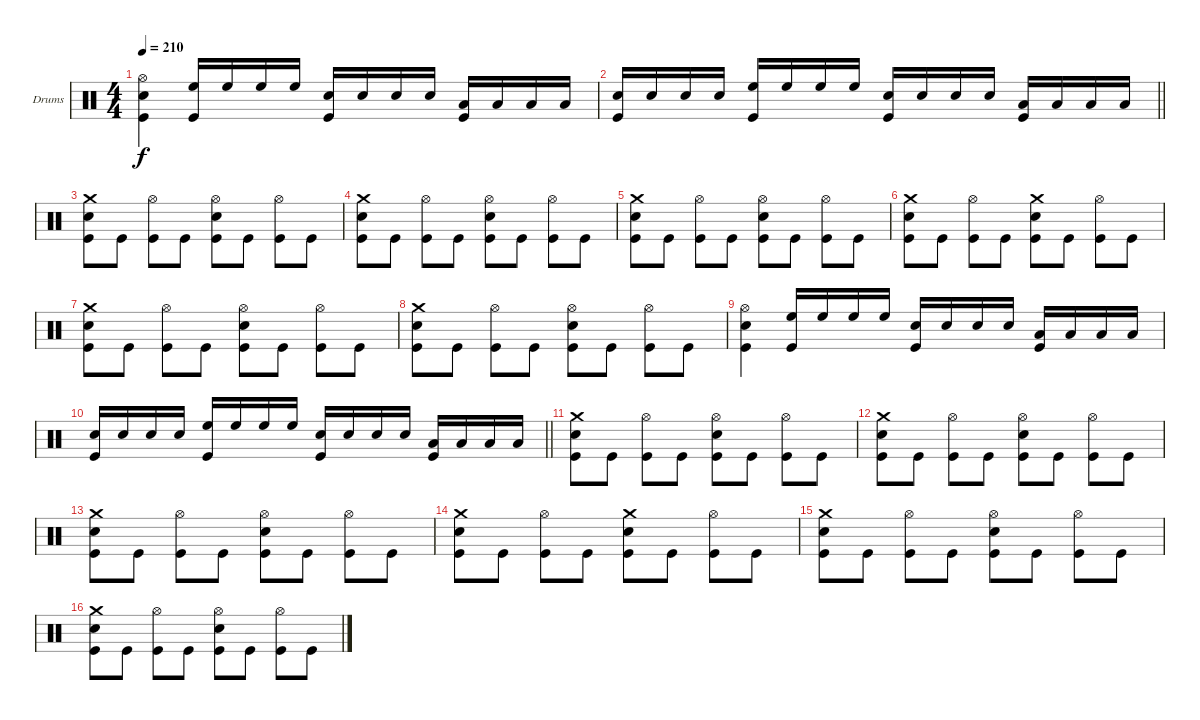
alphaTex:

\bracketExtendMode groupsimilarinstruments
\firstSystemTrackNameOrientation horizontal
\otherSystemsTrackNameOrientation horizontal
\track ("Drumkit" "Drums") {instrument percussion}
\staff {score}
\articulation defaults
\ts (4 4)
\tempo 210
\clef neutral
\ks c
("Hi-Hat (open)" "Snare (hit) 2" "Kick (hit)").4{dy f} ("High Floor Tom (hit)" "Kick (hit)").16 "High Floor Tom (hit)".16 "High Floor Tom (hit)".16 "High Floor Tom (hit)".16 ("Snare (hit) 2" "Kick (hit)").16 "Snare (hit) 2".16 "Snare (hit) 2".16 "Snare (hit) 2".16 ("Low Tom (hit)" "Kick (hit)").16 "Low Tom (hit)".16 "Low Tom (hit)".16 "Low Tom (hit)".16 |
\barLineRight lightlight
("Snare (hit) 2" "Kick (hit)").16 "Snare (hit) 2".16 "Snare (hit) 2".16 "Snare (hit) 2".16 ("High Floor Tom (hit)" "Kick (hit)").16 "High Floor Tom (hit)".16 "High Floor Tom (hit)".16 "High Floor Tom (hit)".16 ("Snare (hit) 2" "Kick (hit)").16 "Snare (hit) 2".16 "Snare (hit) 2".16 "Snare (hit) 2".16 ("Low Tom (hit)" "Kick (hit)").16 "Low Tom (hit)".16 "Low Tom (hit)".16 "Low Tom (hit)".16 |
("Crash medium (hit)" "Snare (hit) 2" "Kick (hit)").8 "Kick (hit)".8 ("Hi-Hat (open)" "Kick (hit)").8 "Kick (hit)".8 ("Hi-Hat (open)" "Snare (hit) 2" "Kick (hit)").8 "Kick (hit)".8 ("Hi-Hat (open)" "Kick (hit)").8 "Kick (hit)".8 |
("Crash medium (hit)" "Snare (hit) 2" "Kick (hit)").8 "Kick (hit)".8 ("Hi-Hat (open)" "Kick (hit)").8 "Kick (hit)".8 ("Hi-Hat (open)" "Snare (hit) 2" "Kick (hit)").8 "Kick (hit)".8 ("Hi-Hat (open)" "Kick (hit)").8 "Kick (hit)".8 |
("Crash medium (hit)" "Snare (hit) 2" "Kick (hit)").8 "Kick (hit)".8 ("Hi-Hat (open)" "Kick (hit)").8 "Kick (hit)".8 ("Hi-Hat (open)" "Snare (hit) 2" "Kick (hit)").8 "Kick (hit)".8 ("Hi-Hat (open)" "Kick (hit)").8 "Kick (hit)".8 |
("Crash medium (hit)" "Snare (hit) 2" "Kick (hit)").8 "Kick (hit)".8 ("Hi-Hat (open)" "Kick (hit)").8 "Kick (hit)".8 ("Crash medium (hit)" "Snare (hit) 2" "Kick (hit)").8 "Kick (hit)".8 ("Hi-Hat (open)" "Kick (hit)").8 "Kick (hit)".8 |
("Crash medium (hit)" "Snare (hit) 2" "Kick (hit)").8 "Kick (hit)".8 ("Hi-Hat (open)" "Kick (hit)").8 "Kick (hit)".8 ("Hi-Hat (open)" "Snare (hit) 2" "Kick (hit)").8 "Kick (hit)".8 ("Hi-Hat (open)" "Kick (hit)").8 "Kick (hit)".8 |
("Crash medium (hit)" "Snare (hit) 2" "Kick (hit)").8 "Kick (hit)".8 ("Hi-Hat (open)" "Kick (hit)").8 "Kick (hit)".8 ("Hi-Hat (open)" "Snare (hit) 2" "Kick (hit)").8 "Kick (hit)".8 ("Hi-Hat (open)" "Kick (hit)").8 "Kick (hit)".8 |
("Hi-Hat (open)" "Snare (hit) 2" "Kick (hit)").4 ("High Floor Tom (hit)" "Kick (hit)").16 "High Floor Tom (hit)".16 "High Floor Tom (hit)".16 "High Floor Tom (hit)".16 ("Snare (hit) 2" "Kick (hit)").16 "Snare (hit) 2".16 "Snare (hit) 2".16 "Snare (hit) 2".16 ("Low Tom (hit)" "Kick (hit)").16 "Low Tom (hit)".16 "Low Tom (hit)".16 "Low Tom (hit)".16 |
\barLineRight lightlight
("Snare (hit) 2" "Kick (hit)").16 "Snare (hit) 2".16 "Snare (hit) 2".16 "Snare (hit) 2".16 ("High Floor Tom (hit)" "Kick (hit)").16 "High Floor Tom (hit)".16 "High Floor Tom (hit)".16 "High Floor Tom (hit)".16 ("Snare (hit) 2" "Kick (hit)").16 "Snare (hit) 2".16 "Snare (hit) 2".16 "Snare (hit) 2".16 ("Low Tom (hit)" "Kick (hit)").16 "Low Tom (hit)".16 "Low Tom (hit)".16 "Low Tom (hit)".16 |
("Crash medium (hit)" "Snare (hit) 2" "Kick (hit)").8 "Kick (hit)".8 ("Hi-Hat (open)" "Kick (hit)").8 "Kick (hit)".8 ("Hi-Hat (open)" "Snare (hit) 2" "Kick (hit)").8 "Kick (hit)".8 ("Hi-Hat (open)" "Kick (hit)").8 "Kick (hit)".8 |
("Crash medium (hit)" "Snare (hit) 2" "Kick (hit)").8 "Kick (hit)".8 ("Hi-Hat (open)" "Kick (hit)").8 "Kick (hit)".8 ("Hi-Hat (open)" "Snare (hit) 2" "Kick (hit)").8 "Kick (hit)".8 ("Hi-Hat (open)" "Kick (hit)").8 "Kick (hit)".8 |
("Crash medium (hit)" "Snare (hit) 2" "Kick (hit)").8 "Kick (hit)".8 ("Hi-Hat (open)" "Kick (hit)").8 "Kick (hit)".8 ("Hi-Hat (open)" "Snare (hit) 2" "Kick (hit)").8 "Kick (hit)".8 ("Hi-Hat (open)" "Kick (hit)").8 "Kick (hit)".8 |
("Crash medium (hit)" "Snare (hit) 2" "Kick (hit)").8 "Kick (hit)".8 ("Hi-Hat (open)" "Kick (hit)").8 "Kick (hit)".8 ("Crash medium (hit)" "Snare (hit) 2" "Kick (hit)").8 "Kick (hit)".8 ("Hi-Hat (open)" "Kick (hit)").8 "Kick (hit)".8 |
("Crash medium (hit)" "Snare (hit) 2" "Kick (hit)").8 "Kick (hit)".8 ("Hi-Hat (open)" "Kick (hit)").8 "Kick (hit)".8 ("Hi-Hat (open)" "Snare (hit) 2" "Kick (hit)").8 "Kick (hit)".8 ("Hi-Hat (open)" "Kick (hit)").8 "Kick (hit)".8 |
("Crash medium (hit)" "Snare (hit) 2" "Kick (hit)").8 "Kick (hit)".8 ("Hi-Hat (open)" "Kick (hit)").8 "Kick (hit)".8 ("Hi-Hat (open)" "Snare (hit) 2" "Kick (hit)").8 "Kick (hit)".8 ("Hi-Hat (open)" "Kick (hit)").8 "Kick (hit)".8
